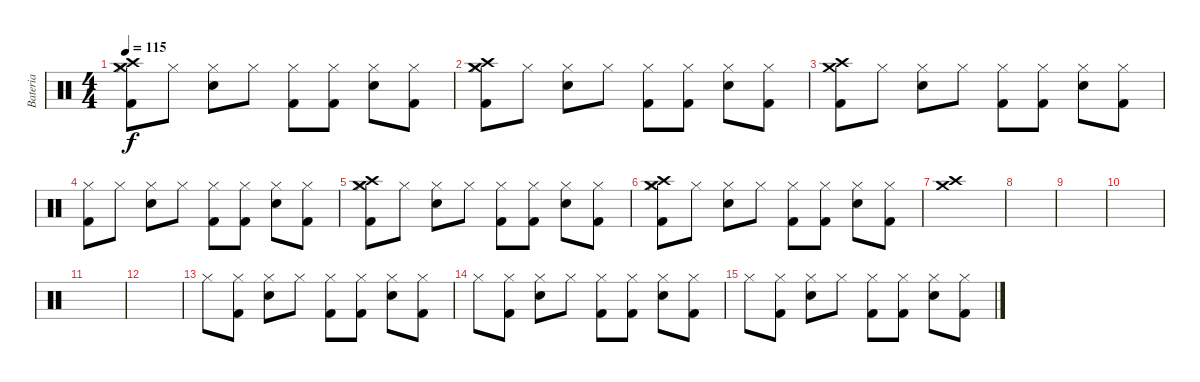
\track ("Bateria" "Bateria") {instrument percussion}
\staff {score}
\articulation defaults
\ts (4 4)
\tempo 115
\clef neutral
\ks c
("Crash high (hit)" "Crash medium (hit)" "Hi-Hat (closed)" "Kick (hit) 2").8{dy f} "Hi-Hat (closed)".8 ("Hi-Hat (closed)" "Snare (hit) 2").8 "Hi-Hat (closed)".8 ("Hi-Hat (closed)" "Kick (hit) 2").8 ("Hi-Hat (closed)" "Kick (hit) 2").8 ("Hi-Hat (closed)" "Snare (hit) 2").8 ("Hi-Hat (closed)" "Kick (hit) 2").8 |
("Crash high (hit)" "Crash medium (hit)" "Hi-Hat (closed)" "Kick (hit) 2").8 "Hi-Hat (closed)".8 ("Hi-Hat (closed)" "Snare (hit) 2").8 "Hi-Hat (closed)".8 ("Hi-Hat (closed)" "Kick (hit) 2").8 ("Hi-Hat (closed)" "Kick (hit) 2").8 ("Hi-Hat (closed)" "Snare (hit) 2").8 ("Hi-Hat (closed)" "Kick (hit) 2").8 |
("Crash high (hit)" "Crash medium (hit)" "Kick (hit) 2").8 "Hi-Hat (closed)".8 ("Hi-Hat (closed)" "Snare (hit) 2").8 "Hi-Hat (closed)".8 ("Hi-Hat (closed)" "Kick (hit) 2").8 ("Hi-Hat (closed)" "Kick (hit) 2").8 ("Hi-Hat (closed)" "Snare (hit) 2").8 ("Hi-Hat (closed)" "Kick (hit) 2").8 |
("Hi-Hat (closed)" "Kick (hit) 2").8 "Hi-Hat (closed)".8 ("Hi-Hat (closed)" "Snare (hit) 2").8 "Hi-Hat (closed)".8 ("Hi-Hat (closed)" "Kick (hit) 2").8 ("Hi-Hat (closed)" "Kick (hit) 2").8 ("Hi-Hat (closed)" "Snare (hit) 2").8 ("Hi-Hat (closed)" "Kick (hit) 2").8 |
("Crash high (hit)" "Crash medium (hit)" "Hi-Hat (closed)" "Kick (hit) 2").8 "Hi-Hat (closed)".8 ("Hi-Hat (closed)" "Snare (hit) 2").8 "Hi-Hat (closed)".8 ("Hi-Hat (closed)" "Kick (hit) 2").8 ("Hi-Hat (closed)" "Kick (hit) 2").8 ("Hi-Hat (closed)" "Snare (hit) 2").8 ("Hi-Hat (closed)" "Kick (hit) 2").8 |
("Crash high (hit)" "Crash medium (hit)" "Hi-Hat (closed)" "Kick (hit) 2").8 "Hi-Hat (closed)".8 ("Hi-Hat (closed)" "Snare (hit) 2").8 "Hi-Hat (closed)".8 ("Hi-Hat (closed)" "Kick (hit) 2").8 ("Hi-Hat (closed)" "Kick (hit) 2").8 ("Hi-Hat (closed)" "Snare (hit) 2").8 ("Hi-Hat (closed)" "Kick (hit) 2").8 |
("Crash high (hit)" "Crash medium (hit)").1 |
|
|
|
|
|
"Hi-Hat (closed)".8{volume 8 balance 8} ("Hi-Hat (closed)" "Kick (hit) 2").8 ("Hi-Hat (closed)" "Snare (hit) 2").8 "Hi-Hat (closed)".8 ("Hi-Hat (closed)" "Kick (hit) 2").8 ("Hi-Hat (closed)" "Kick (hit) 2").8 ("Hi-Hat (closed)" "Snare (hit) 2").8 ("Hi-Hat (closed)" "Kick (hit) 2").8 |
"Hi-Hat (closed)".8{volume 5} ("Hi-Hat (closed)" "Kick (hit) 2").8 ("Hi-Hat (closed)" "Snare (hit) 2").8 "Hi-Hat (closed)".8 ("Hi-Hat (closed)" "Kick (hit) 2").8 ("Hi-Hat (closed)" "Kick (hit) 2").8 ("Hi-Hat (closed)" "Snare (hit) 2").8 ("Hi-Hat (closed)" "Kick (hit) 2").8 |
"Hi-Hat (closed)".8{volume 3} ("Hi-Hat (closed)" "Kick (hit) 2").8 ("Hi-Hat (closed)" "Snare (hit) 2").8 "Hi-Hat (closed)".8 ("Hi-Hat (closed)" "Kick (hit) 2").8 ("Hi-Hat (closed)" "Kick (hit) 2").8 ("Hi-Hat (closed)" "Snare (hit) 2").8 ("Hi-Hat (closed)" "Kick (hit) 2").8
